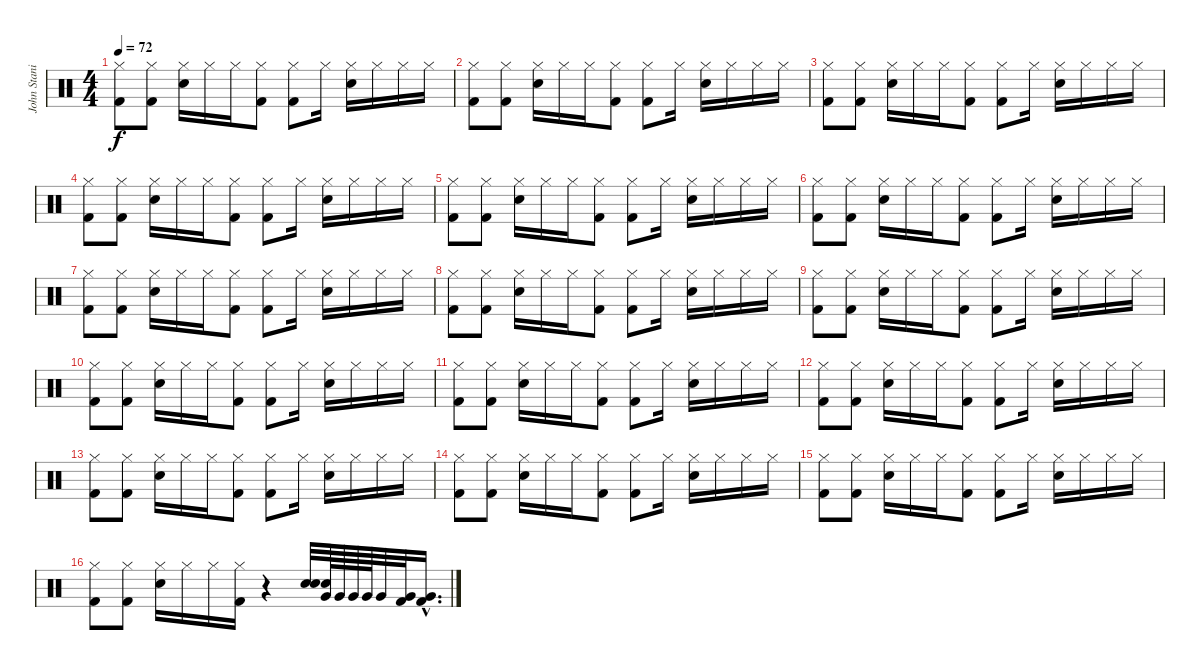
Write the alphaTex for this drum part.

\track ("John Stanier (Drums)" "John Stani") {instrument percussion}
\staff {score}
\articulation defaults
\ts (4 4)
\tempo 72
\clef neutral
\ks c
("Hi-Hat (closed)" "Kick (hit) 2").8{dy f} ("Hi-Hat (closed)" "Kick (hit) 2").8 ("Hi-Hat (closed)" "Electric Snare (hit)").16 "Hi-Hat (closed)".16 "Hi-Hat (closed)".16 ("Hi-Hat (closed)" "Kick (hit) 2").8 ("Hi-Hat (closed)" "Kick (hit) 2").8 "Hi-Hat (closed)".16 ("Hi-Hat (closed)" "Electric Snare (hit)").16 "Hi-Hat (closed)".16 "Hi-Hat (closed)".16 "Hi-Hat (closed)".16 |
("Hi-Hat (closed)" "Kick (hit) 2").8 ("Hi-Hat (closed)" "Kick (hit) 2").8 ("Hi-Hat (closed)" "Electric Snare (hit)").16 "Hi-Hat (closed)".16 "Hi-Hat (closed)".16 ("Hi-Hat (closed)" "Kick (hit) 2").8 ("Hi-Hat (closed)" "Kick (hit) 2").8 "Hi-Hat (closed)".16 ("Hi-Hat (closed)" "Electric Snare (hit)").16 "Hi-Hat (closed)".16 "Hi-Hat (closed)".16 "Hi-Hat (closed)".16 |
("Hi-Hat (closed)" "Kick (hit) 2").8 ("Hi-Hat (closed)" "Kick (hit) 2").8 ("Hi-Hat (closed)" "Electric Snare (hit)").16 "Hi-Hat (closed)".16 "Hi-Hat (closed)".16 ("Hi-Hat (closed)" "Kick (hit) 2").8 ("Hi-Hat (closed)" "Kick (hit) 2").8 "Hi-Hat (closed)".16 ("Hi-Hat (closed)" "Electric Snare (hit)").16 "Hi-Hat (closed)".16 "Hi-Hat (closed)".16 "Hi-Hat (closed)".16 |
("Hi-Hat (closed)" "Kick (hit) 2").8 ("Hi-Hat (closed)" "Kick (hit) 2").8 ("Hi-Hat (closed)" "Electric Snare (hit)").16 "Hi-Hat (closed)".16 "Hi-Hat (closed)".16 ("Hi-Hat (closed)" "Kick (hit) 2").8 ("Hi-Hat (closed)" "Kick (hit) 2").8 "Hi-Hat (closed)".16 ("Hi-Hat (closed)" "Electric Snare (hit)").16 "Hi-Hat (closed)".16 "Hi-Hat (closed)".16 "Hi-Hat (closed)".16 |
("Hi-Hat (closed)" "Kick (hit) 2").8 ("Hi-Hat (closed)" "Kick (hit) 2").8 ("Hi-Hat (closed)" "Electric Snare (hit)").16 "Hi-Hat (closed)".16 "Hi-Hat (closed)".16 ("Hi-Hat (closed)" "Kick (hit) 2").8 ("Hi-Hat (closed)" "Kick (hit) 2").8 "Hi-Hat (closed)".16 ("Hi-Hat (closed)" "Electric Snare (hit)").16 "Hi-Hat (closed)".16 "Hi-Hat (closed)".16 "Hi-Hat (closed)".16 |
("Hi-Hat (closed)" "Kick (hit) 2").8 ("Hi-Hat (closed)" "Kick (hit) 2").8 ("Hi-Hat (closed)" "Electric Snare (hit)").16 "Hi-Hat (closed)".16 "Hi-Hat (closed)".16 ("Hi-Hat (closed)" "Kick (hit) 2").8 ("Hi-Hat (closed)" "Kick (hit) 2").8 "Hi-Hat (closed)".16 ("Hi-Hat (closed)" "Electric Snare (hit)").16 "Hi-Hat (closed)".16 "Hi-Hat (closed)".16 "Hi-Hat (closed)".16 |
("Hi-Hat (closed)" "Kick (hit) 2").8 ("Hi-Hat (closed)" "Kick (hit) 2").8 ("Hi-Hat (closed)" "Electric Snare (hit)").16 "Hi-Hat (closed)".16 "Hi-Hat (closed)".16 ("Hi-Hat (closed)" "Kick (hit) 2").8 ("Hi-Hat (closed)" "Kick (hit) 2").8 "Hi-Hat (closed)".16 ("Hi-Hat (closed)" "Electric Snare (hit)").16 "Hi-Hat (closed)".16 "Hi-Hat (closed)".16 "Hi-Hat (closed)".16 |
("Hi-Hat (closed)" "Kick (hit) 2").8 ("Hi-Hat (closed)" "Kick (hit) 2").8 ("Hi-Hat (closed)" "Electric Snare (hit)").16 "Hi-Hat (closed)".16 "Hi-Hat (closed)".16 ("Hi-Hat (closed)" "Kick (hit) 2").8 ("Hi-Hat (closed)" "Kick (hit) 2").8 "Hi-Hat (closed)".16 ("Hi-Hat (closed)" "Electric Snare (hit)").16 "Hi-Hat (closed)".16 "Hi-Hat (closed)".16 "Hi-Hat (closed)".16 |
("Hi-Hat (closed)" "Kick (hit) 2").8 ("Hi-Hat (closed)" "Kick (hit) 2").8 ("Hi-Hat (closed)" "Electric Snare (hit)").16 "Hi-Hat (closed)".16 "Hi-Hat (closed)".16 ("Hi-Hat (closed)" "Kick (hit) 2").8 ("Hi-Hat (closed)" "Kick (hit) 2").8 "Hi-Hat (closed)".16 ("Hi-Hat (closed)" "Electric Snare (hit)").16 "Hi-Hat (closed)".16 "Hi-Hat (closed)".16 "Hi-Hat (closed)".16 |
("Hi-Hat (closed)" "Kick (hit) 2").8 ("Hi-Hat (closed)" "Kick (hit) 2").8 ("Hi-Hat (closed)" "Electric Snare (hit)").16 "Hi-Hat (closed)".16 "Hi-Hat (closed)".16 ("Hi-Hat (closed)" "Kick (hit) 2").8 ("Hi-Hat (closed)" "Kick (hit) 2").8 "Hi-Hat (closed)".16 ("Hi-Hat (closed)" "Electric Snare (hit)").16 "Hi-Hat (closed)".16 "Hi-Hat (closed)".16 "Hi-Hat (closed)".16 |
("Hi-Hat (closed)" "Kick (hit) 2").8 ("Hi-Hat (closed)" "Kick (hit) 2").8 ("Hi-Hat (closed)" "Electric Snare (hit)").16 "Hi-Hat (closed)".16 "Hi-Hat (closed)".16 ("Hi-Hat (closed)" "Kick (hit) 2").8 ("Hi-Hat (closed)" "Kick (hit) 2").8 "Hi-Hat (closed)".16 ("Hi-Hat (closed)" "Electric Snare (hit)").16 "Hi-Hat (closed)".16 "Hi-Hat (closed)".16 "Hi-Hat (closed)".16 |
("Hi-Hat (closed)" "Kick (hit) 2").8 ("Hi-Hat (closed)" "Kick (hit) 2").8 ("Hi-Hat (closed)" "Electric Snare (hit)").16 "Hi-Hat (closed)".16 "Hi-Hat (closed)".16 ("Hi-Hat (closed)" "Kick (hit) 2").8 ("Hi-Hat (closed)" "Kick (hit) 2").8 "Hi-Hat (closed)".16 ("Hi-Hat (closed)" "Electric Snare (hit)").16 "Hi-Hat (closed)".16 "Hi-Hat (closed)".16 "Hi-Hat (closed)".16 |
("Hi-Hat (closed)" "Kick (hit) 2").8 ("Hi-Hat (closed)" "Kick (hit) 2").8 ("Hi-Hat (closed)" "Electric Snare (hit)").16 "Hi-Hat (closed)".16 "Hi-Hat (closed)".16 ("Hi-Hat (closed)" "Kick (hit) 2").8 ("Hi-Hat (closed)" "Kick (hit) 2").8 "Hi-Hat (closed)".16 ("Hi-Hat (closed)" "Electric Snare (hit)").16 "Hi-Hat (closed)".16 "Hi-Hat (closed)".16 "Hi-Hat (closed)".16 |
("Hi-Hat (closed)" "Kick (hit) 2").8 ("Hi-Hat (closed)" "Kick (hit) 2").8 ("Hi-Hat (closed)" "Electric Snare (hit)").16 "Hi-Hat (closed)".16 "Hi-Hat (closed)".16 ("Hi-Hat (closed)" "Kick (hit) 2").8 ("Hi-Hat (closed)" "Kick (hit) 2").8 "Hi-Hat (closed)".16 ("Hi-Hat (closed)" "Electric Snare (hit)").16 "Hi-Hat (closed)".16 "Hi-Hat (closed)".16 "Hi-Hat (closed)".16 |
("Hi-Hat (closed)" "Kick (hit) 2").8 ("Hi-Hat (closed)" "Kick (hit) 2").8 ("Hi-Hat (closed)" "Electric Snare (hit)").16 "Hi-Hat (closed)".16 "Hi-Hat (closed)".16 ("Hi-Hat (closed)" "Kick (hit) 2").8 ("Hi-Hat (closed)" "Kick (hit) 2").8 "Hi-Hat (closed)".16 ("Hi-Hat (closed)" "Electric Snare (hit)").16 "Hi-Hat (closed)".16 "Hi-Hat (closed)".16 "Hi-Hat (closed)".16 |
("Hi-Hat (closed)" "Kick (hit) 2").8 ("Hi-Hat (closed)" "Kick (hit) 2").8 ("Hi-Hat (closed)" "Electric Snare (hit)").16 "Hi-Hat (closed)".16 "Hi-Hat (closed)".16 ("Hi-Hat (closed)" "Kick (hit) 2").16 r.4 ("Electric Snare (hit)" "Electric Snare (hit)").32 ("Very Low Tom (hit)" "Electric Snare (hit)").64 "Very Low Tom (hit)".64 "Very Low Tom (hit)".64 "Very Low Tom (hit)".64 "Very Low Tom (hit)".32 ("Very Low Tom (hit)" "Kick (hit) 2").32 ("Very Low Tom (hit)"{hac} "Kick (hit) 2"{hac}).16{d}
